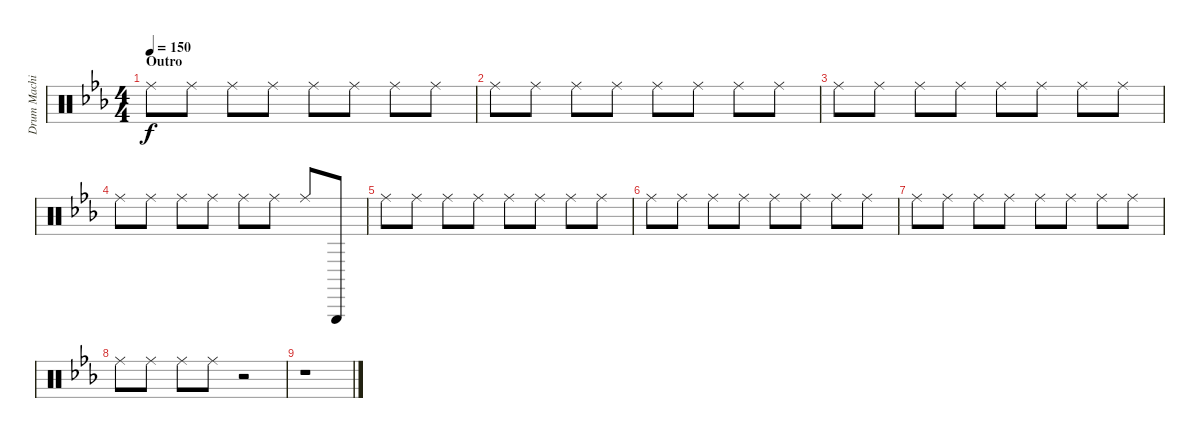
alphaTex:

\track ("Drum Machine" "Drum Machi") {instrument percussion}
\staff {score}
\articulation defaults
\ts (4 4)
\section ("" "Outro")
\tempo 150
\clef neutral
\ks eb "Ride (middle)".8{dy f} "Ride (middle)".8 "Ride (middle)".8 "Ride (middle)".8 "Ride (middle)".8 "Ride (middle)".8 "Ride (middle)".8 "Ride (middle)".8
|
"Ride (middle)".8 "Ride (middle)".8 "Ride (middle)".8 "Ride (middle)".8 "Ride (middle)".8 "Ride (middle)".8 "Ride (middle)".8 "Ride (middle)".8 |
"Ride (middle)".8 "Ride (middle)".8 "Ride (middle)".8 "Ride (middle)".8 "Ride (middle)".8 "Ride (middle)".8 "Ride (middle)".8 "Ride (middle)".8 |
"Ride (middle)".8 "Ride (middle)".8 "Ride (middle)".8 "Ride (middle)".8 "Ride (middle)".8 "Ride (middle)".8 "Ride (middle)".8 "Triangle (hit)".8 |
"Ride (middle)".8 "Ride (middle)".8 "Ride (middle)".8 "Ride (middle)".8 "Ride (middle)".8 "Ride (middle)".8 "Ride (middle)".8 "Ride (middle)".8 |
"Ride (middle)".8 "Ride (middle)".8 "Ride (middle)".8 "Ride (middle)".8 "Ride (middle)".8 "Ride (middle)".8 "Ride (middle)".8 "Ride (middle)".8 |
"Ride (middle)".8 "Ride (middle)".8 "Ride (middle)".8 "Ride (middle)".8 "Ride (middle)".8 "Ride (middle)".8 "Ride (middle)".8 "Ride (middle)".8 |
"Ride (middle)".8 "Ride (middle)".8 "Ride (middle)".8 "Ride (middle)".8 r.2 |
r.1
